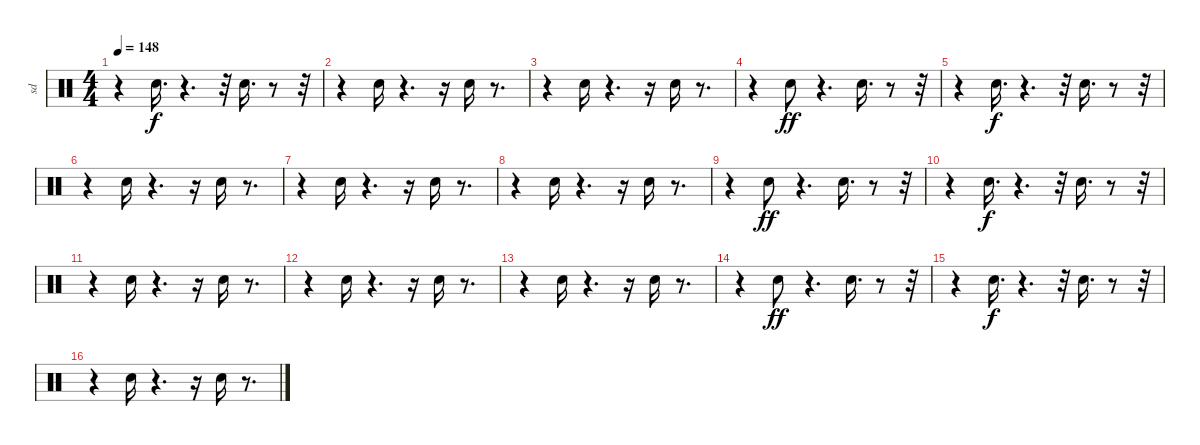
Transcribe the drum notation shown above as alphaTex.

\track ("sd                  " "sd        ") {instrument percussion}
\staff {score}
\articulation defaults
\ts (4 4)
\tempo 148
\clef neutral
\ks c
r.4{dy ff} "Snare (hit) 2".16{d dy f} r.4{d} r.32 "Snare (hit) 2".16{d} r.8 r.32 |
r.4 "Snare (hit) 2".16 r.4{d} r.16 "Snare (hit) 2".16 r.8{d} |
r.4 "Snare (hit) 2".16 r.4{d} r.16 "Snare (hit) 2".16 r.8{d} |
r.4 "Snare (hit) 2".8{dy ff} r.4{d} "Snare (hit) 2".16{d} r.8 r.32 |
r.4 "Snare (hit) 2".16{d dy f} r.4{d} r.32 "Snare (hit) 2".16{d} r.8 r.32 |
r.4 "Snare (hit) 2".16 r.4{d} r.16 "Snare (hit) 2".16 r.8{d} |
r.4 "Snare (hit) 2".16 r.4{d} r.16 "Snare (hit) 2".16 r.8{d} |
r.4 "Snare (hit) 2".16 r.4{d} r.16 "Snare (hit) 2".16 r.8{d} |
r.4 "Snare (hit) 2".8{dy ff} r.4{d} "Snare (hit) 2".16{d} r.8 r.32 |
r.4 "Snare (hit) 2".16{d dy f} r.4{d} r.32 "Snare (hit) 2".16{d} r.8 r.32 |
r.4 "Snare (hit) 2".16 r.4{d} r.16 "Snare (hit) 2".16 r.8{d} |
r.4 "Snare (hit) 2".16 r.4{d} r.16 "Snare (hit) 2".16 r.8{d} |
r.4 "Snare (hit) 2".16 r.4{d} r.16 "Snare (hit) 2".16 r.8{d} |
r.4 "Snare (hit) 2".8{dy ff} r.4{d} "Snare (hit) 2".16{d} r.8 r.32 |
r.4 "Snare (hit) 2".16{d dy f} r.4{d} r.32 "Snare (hit) 2".16{d} r.8 r.32 |
r.4 "Snare (hit) 2".16 r.4{d} r.16 "Snare (hit) 2".16 r.8{d}
